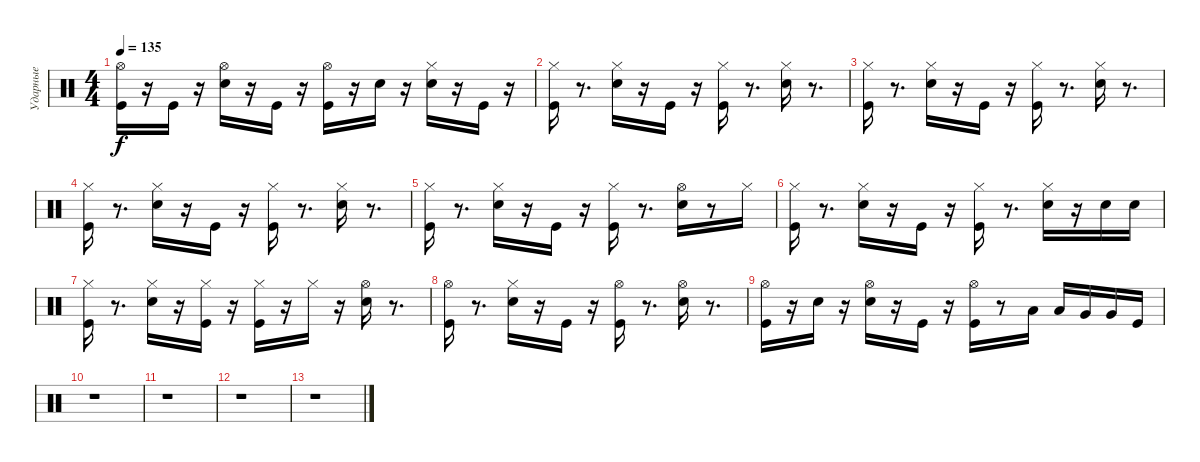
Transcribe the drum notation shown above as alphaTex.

\track ("Ударные" "Ударные") {instrument percussion}
\staff {score}
\articulation defaults
\ts (4 4)
\tempo 135
\clef neutral
\ks c
("Kick (hit)" "Hi-Hat (open)").16{dy f} r.16 "Kick (hit)".16 r.16 ("Hi-Hat (open)" "Snare (hit) 2").16 r.16 "Kick (hit)".16 r.16 ("Kick (hit)" "Hi-Hat (open)").16 r.16 "Snare (hit) 2".16 r.16 ("Snare (hit) 2" "Hi-Hat (closed)").16 r.16 "Kick (hit)".16 r.16 |
("Hi-Hat (closed)" "Kick (hit)").16 r.8{d} ("Hi-Hat (closed)" "Snare (hit) 2").16 r.16 "Kick (hit)".16 r.16 ("Hi-Hat (closed)" "Kick (hit)").16 r.8{d} ("Hi-Hat (closed)" "Snare (hit) 2").16 r.8{d} |
("Hi-Hat (closed)" "Kick (hit)").16 r.8{d} ("Hi-Hat (closed)" "Snare (hit) 2").16 r.16 "Kick (hit)".16 r.16 ("Hi-Hat (closed)" "Kick (hit)").16 r.8{d} ("Hi-Hat (closed)" "Snare (hit) 2").16 r.8{d} |
("Hi-Hat (closed)" "Kick (hit)").16 r.8{d} ("Hi-Hat (closed)" "Snare (hit) 2").16 r.16 "Kick (hit)".16 r.16 ("Hi-Hat (closed)" "Kick (hit)").16 r.8{d} ("Hi-Hat (closed)" "Snare (hit) 2").16 r.8{d} |
("Hi-Hat (closed)" "Kick (hit)").16 r.8{d} ("Hi-Hat (closed)" "Snare (hit) 2").16 r.16 "Kick (hit)".16 r.16 ("Hi-Hat (closed)" "Kick (hit)").16 r.8{d} ("Hi-Hat (open)" "Snare (hit) 2").16 r.8 "Hi-Hat (closed)".16 |
("Hi-Hat (closed)" "Kick (hit)").16 r.8{d} ("Hi-Hat (closed)" "Snare (hit) 2").16 r.16 "Kick (hit)".16 r.16 ("Hi-Hat (closed)" "Kick (hit)").16 r.8{d} ("Hi-Hat (closed)" "Snare (hit) 2").16 r.16 "Snare (hit) 2".16 "Snare (hit) 2".16 |
("Hi-Hat (closed)" "Kick (hit)").16 r.8{d} ("Snare (hit) 2" "Hi-Hat (closed)").16 r.16 ("Hi-Hat (closed)" "Kick (hit)").16 r.16 ("Hi-Hat (closed)" "Kick (hit)").16 r.16 "Hi-Hat (closed)".16 r.16 ("Hi-Hat (open)" "Snare (hit) 2").16 r.8{d} |
("Kick (hit)" "Hi-Hat (open)").16 r.8{d} ("Snare (hit) 2" "Hi-Hat (closed)").16 r.16 "Kick (hit)".16 r.16 ("Kick (hit)" "Hi-Hat (open)").16 r.8{d} ("Hi-Hat (open)" "Snare (hit) 2").16 r.8{d} |
("Kick (hit)" "Hi-Hat (open)").16 r.16 "Snare (hit) 2".16 r.16 ("Snare (hit) 2" "Hi-Hat (open)").16 r.16 "Kick (hit)".16 r.16 ("Kick (hit)" "Hi-Hat (open)").16 r.8 "Low Tom (hit)".16 "Low Tom (hit)".16 "Very Low Tom (hit)".16 "Very Low Tom (hit)".16 "Kick (hit)".16 |
r.1 |
r.1 |
r.1 |
r.1
